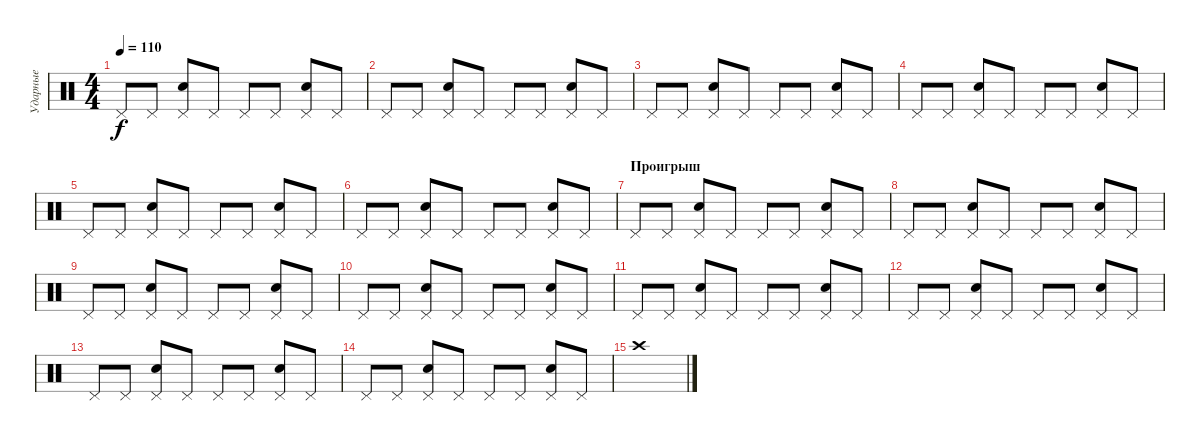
\track ("Ударные" "Ударные") {instrument percussion}
\staff {score}
\articulation defaults
\ts (4 4)
\tempo 110
\clef neutral
\ks c "Pedal Hi-Hat (hit)".8{dy f} "Pedal Hi-Hat (hit)".8
("Pedal Hi-Hat (hit)" "Snare (hit) 2").8 "Pedal Hi-Hat (hit)".8 "Pedal Hi-Hat (hit)".8 "Pedal Hi-Hat (hit)".8 ("Pedal Hi-Hat (hit)" "Snare (hit) 2").8 "Pedal Hi-Hat (hit)".8 |
"Pedal Hi-Hat (hit)".8 "Pedal Hi-Hat (hit)".8 ("Pedal Hi-Hat (hit)" "Snare (hit) 2").8 "Pedal Hi-Hat (hit)".8 "Pedal Hi-Hat (hit)".8 "Pedal Hi-Hat (hit)".8 ("Pedal Hi-Hat (hit)" "Snare (hit) 2").8 "Pedal Hi-Hat (hit)".8 |
"Pedal Hi-Hat (hit)".8 "Pedal Hi-Hat (hit)".8 ("Pedal Hi-Hat (hit)" "Snare (hit) 2").8 "Pedal Hi-Hat (hit)".8 "Pedal Hi-Hat (hit)".8 "Pedal Hi-Hat (hit)".8 ("Pedal Hi-Hat (hit)" "Snare (hit) 2").8 "Pedal Hi-Hat (hit)".8 |
"Pedal Hi-Hat (hit)".8 "Pedal Hi-Hat (hit)".8 ("Pedal Hi-Hat (hit)" "Snare (hit) 2").8 "Pedal Hi-Hat (hit)".8 "Pedal Hi-Hat (hit)".8 "Pedal Hi-Hat (hit)".8 ("Pedal Hi-Hat (hit)" "Snare (hit) 2").8 "Pedal Hi-Hat (hit)".8 |
"Pedal Hi-Hat (hit)".8 "Pedal Hi-Hat (hit)".8 ("Pedal Hi-Hat (hit)" "Snare (hit) 2").8 "Pedal Hi-Hat (hit)".8 "Pedal Hi-Hat (hit)".8 "Pedal Hi-Hat (hit)".8 ("Pedal Hi-Hat (hit)" "Snare (hit) 2").8 "Pedal Hi-Hat (hit)".8 |
"Pedal Hi-Hat (hit)".8 "Pedal Hi-Hat (hit)".8 ("Pedal Hi-Hat (hit)" "Snare (hit) 2").8 "Pedal Hi-Hat (hit)".8 "Pedal Hi-Hat (hit)".8 "Pedal Hi-Hat (hit)".8 ("Pedal Hi-Hat (hit)" "Snare (hit) 2").8 "Pedal Hi-Hat (hit)".8 |
\section ("" "Проигрыш")
"Pedal Hi-Hat (hit)".8 "Pedal Hi-Hat (hit)".8 ("Pedal Hi-Hat (hit)" "Snare (hit) 2").8 "Pedal Hi-Hat (hit)".8 "Pedal Hi-Hat (hit)".8 "Pedal Hi-Hat (hit)".8 ("Pedal Hi-Hat (hit)" "Snare (hit) 2").8 "Pedal Hi-Hat (hit)".8 |
"Pedal Hi-Hat (hit)".8 "Pedal Hi-Hat (hit)".8 ("Pedal Hi-Hat (hit)" "Snare (hit) 2").8 "Pedal Hi-Hat (hit)".8 "Pedal Hi-Hat (hit)".8 "Pedal Hi-Hat (hit)".8 ("Pedal Hi-Hat (hit)" "Snare (hit) 2").8 "Pedal Hi-Hat (hit)".8 |
"Pedal Hi-Hat (hit)".8 "Pedal Hi-Hat (hit)".8 ("Pedal Hi-Hat (hit)" "Snare (hit) 2").8 "Pedal Hi-Hat (hit)".8 "Pedal Hi-Hat (hit)".8 "Pedal Hi-Hat (hit)".8 ("Pedal Hi-Hat (hit)" "Snare (hit) 2").8 "Pedal Hi-Hat (hit)".8 |
"Pedal Hi-Hat (hit)".8 "Pedal Hi-Hat (hit)".8 ("Pedal Hi-Hat (hit)" "Snare (hit) 2").8 "Pedal Hi-Hat (hit)".8 "Pedal Hi-Hat (hit)".8 "Pedal Hi-Hat (hit)".8 ("Pedal Hi-Hat (hit)" "Snare (hit) 2").8 "Pedal Hi-Hat (hit)".8 |
"Pedal Hi-Hat (hit)".8 "Pedal Hi-Hat (hit)".8 ("Pedal Hi-Hat (hit)" "Snare (hit) 2").8 "Pedal Hi-Hat (hit)".8 "Pedal Hi-Hat (hit)".8 "Pedal Hi-Hat (hit)".8 ("Pedal Hi-Hat (hit)" "Snare (hit) 2").8 "Pedal Hi-Hat (hit)".8 |
"Pedal Hi-Hat (hit)".8 "Pedal Hi-Hat (hit)".8 ("Pedal Hi-Hat (hit)" "Snare (hit) 2").8 "Pedal Hi-Hat (hit)".8 "Pedal Hi-Hat (hit)".8 "Pedal Hi-Hat (hit)".8 ("Pedal Hi-Hat (hit)" "Snare (hit) 2").8 "Pedal Hi-Hat (hit)".8 |
"Pedal Hi-Hat (hit)".8 "Pedal Hi-Hat (hit)".8 ("Pedal Hi-Hat (hit)" "Snare (hit) 2").8 "Pedal Hi-Hat (hit)".8 "Pedal Hi-Hat (hit)".8 "Pedal Hi-Hat (hit)".8 ("Pedal Hi-Hat (hit)" "Snare (hit) 2").8 "Pedal Hi-Hat (hit)".8 |
"Pedal Hi-Hat (hit)".8 "Pedal Hi-Hat (hit)".8 ("Pedal Hi-Hat (hit)" "Snare (hit) 2").8 "Pedal Hi-Hat (hit)".8 "Pedal Hi-Hat (hit)".8 "Pedal Hi-Hat (hit)".8 ("Pedal Hi-Hat (hit)" "Snare (hit) 2").8 "Pedal Hi-Hat (hit)".8 |
"Crash high (hit)".1
